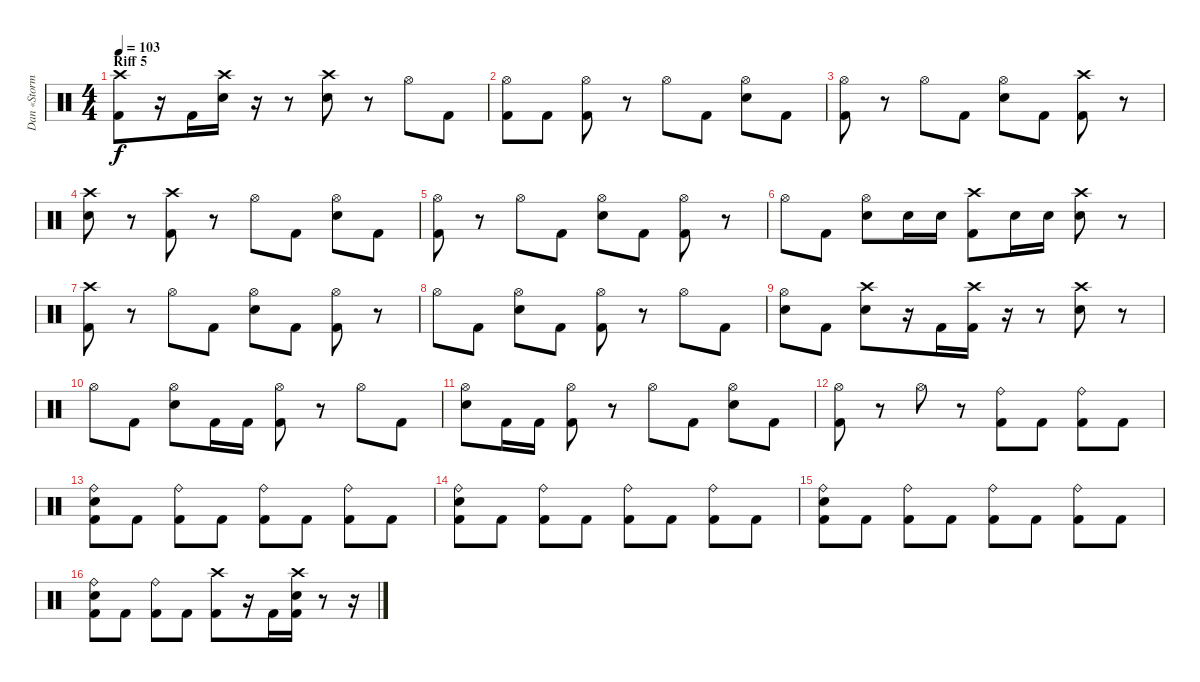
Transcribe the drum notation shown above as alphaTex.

\track ("Dan «Storm» Mullins" "Dan «Storm") {instrument percussion}
\staff {score}
\articulation defaults
\ts (4 4)
\section ("" "Riff 5")
\tempo 103
\clef neutral
\ks c
("Crash high (hit)" "Kick (hit) 2").8{dy f} r.16 "Kick (hit) 2".16{beam merge} ("Crash high (hit)" "Electric Snare (hit)").16 r.16 r.8 ("Crash high (hit)" "Electric Snare (hit)").8 r.8 "Hi-Hat (open)".8 "Kick (hit) 2".8 |
("Hi-Hat (open)" "Kick (hit) 2").8 "Kick (hit) 2".8 ("Hi-Hat (open)" "Kick (hit) 2").8 r.8 "Hi-Hat (open)".8 "Kick (hit) 2".8 ("Hi-Hat (open)" "Electric Snare (hit)").8 "Kick (hit) 2".8 |
("Hi-Hat (open)" "Kick (hit) 2").8 r.8 "Hi-Hat (open)".8 "Kick (hit) 2".8 ("Hi-Hat (open)" "Electric Snare (hit)").8 "Kick (hit) 2".8 ("Crash high (hit)" "Kick (hit) 2").8 r.8 |
("Crash high (hit)" "Electric Snare (hit)").8 r.8 ("Crash high (hit)" "Kick (hit) 2").8 r.8 "Hi-Hat (open)".8 "Kick (hit) 2".8 ("Hi-Hat (open)" "Electric Snare (hit)").8 "Kick (hit) 2".8 |
("Hi-Hat (open)" "Kick (hit) 2").8 r.8 "Hi-Hat (open)".8 "Kick (hit) 2".8 ("Hi-Hat (open)" "Electric Snare (hit)").8 "Kick (hit) 2".8 ("Hi-Hat (open)" "Kick (hit) 2").8 r.8 |
"Hi-Hat (open)".8 "Kick (hit) 2".8 ("Hi-Hat (open)" "Electric Snare (hit)").8 "Electric Snare (hit)".16 "Electric Snare (hit)".16 ("Crash high (hit)" "Kick (hit) 2").8 "Electric Snare (hit)".16 "Electric Snare (hit)".16 ("Crash high (hit)" "Electric Snare (hit)").8 r.8 |
("Crash high (hit)" "Kick (hit) 2").8 r.8 "Hi-Hat (open)".8 "Kick (hit) 2".8 ("Hi-Hat (open)" "Electric Snare (hit)").8 "Kick (hit) 2".8 ("Hi-Hat (open)" "Kick (hit) 2").8 r.8 |
"Hi-Hat (open)".8 "Kick (hit) 2".8 ("Hi-Hat (open)" "Electric Snare (hit)").8 "Kick (hit) 2".8 ("Hi-Hat (open)" "Kick (hit) 2").8 r.8 "Hi-Hat (open)".8 "Kick (hit) 2".8 |
("Hi-Hat (open)" "Electric Snare (hit)").8 "Kick (hit) 2".8 ("Crash high (hit)" "Electric Snare (hit)").8 r.16 "Kick (hit) 2".16{beam merge} ("Crash high (hit)" "Kick (hit) 2").16 r.16 r.8 ("Crash high (hit)" "Electric Snare (hit)").8 r.8 |
"Hi-Hat (open)".8 "Kick (hit) 2".8 ("Hi-Hat (open)" "Electric Snare (hit)").8 "Kick (hit) 2".16 "Kick (hit) 2".16 ("Hi-Hat (open)" "Kick (hit) 2").8 r.8 "Hi-Hat (open)".8 "Kick (hit) 2".8 |
("Hi-Hat (open)" "Electric Snare (hit)").8 "Kick (hit) 2".16 "Kick (hit) 2".16 ("Hi-Hat (open)" "Kick (hit) 2").8 r.8 "Hi-Hat (open)".8 "Kick (hit) 2".8 ("Hi-Hat (open)" "Electric Snare (hit)").8 "Kick (hit) 2".8 |
("Hi-Hat (open)" "Kick (hit) 2").8 r.8 "Hi-Hat (open)".8 r.8 ("Ride (bell)" "Kick (hit) 2").8 "Kick (hit) 2".8 ("Ride (bell)" "Kick (hit) 2").8 "Kick (hit) 2".8 |
("Ride (bell)" "Electric Snare (hit)" "Kick (hit) 2").8 "Kick (hit) 2".8 ("Ride (bell)" "Kick (hit) 2").8 "Kick (hit) 2".8 ("Ride (bell)" "Kick (hit) 2").8 "Kick (hit) 2".8 ("Ride (bell)" "Kick (hit) 2").8 "Kick (hit) 2".8 |
("Ride (bell)" "Electric Snare (hit)" "Kick (hit) 2").8 "Kick (hit) 2".8 ("Ride (bell)" "Kick (hit) 2").8 "Kick (hit) 2".8 ("Ride (bell)" "Kick (hit) 2").8 "Kick (hit) 2".8 ("Ride (bell)" "Kick (hit) 2").8 "Kick (hit) 2".8 |
("Ride (bell)" "Electric Snare (hit)" "Kick (hit) 2").8 "Kick (hit) 2".8 ("Ride (bell)" "Kick (hit) 2").8 "Kick (hit) 2".8 ("Ride (bell)" "Kick (hit) 2").8 "Kick (hit) 2".8 ("Ride (bell)" "Kick (hit) 2").8 "Kick (hit) 2".8 |
("Ride (bell)" "Electric Snare (hit)" "Kick (hit) 2").8 "Kick (hit) 2".8 ("Ride (bell)" "Kick (hit) 2").8 "Kick (hit) 2".8 ("Crash high (hit)" "Kick (hit) 2").8 r.16 "Kick (hit) 2".16{beam merge} ("Crash high (hit)" "Electric Snare (hit)" "Kick (hit) 2").16 r.8 r.16
